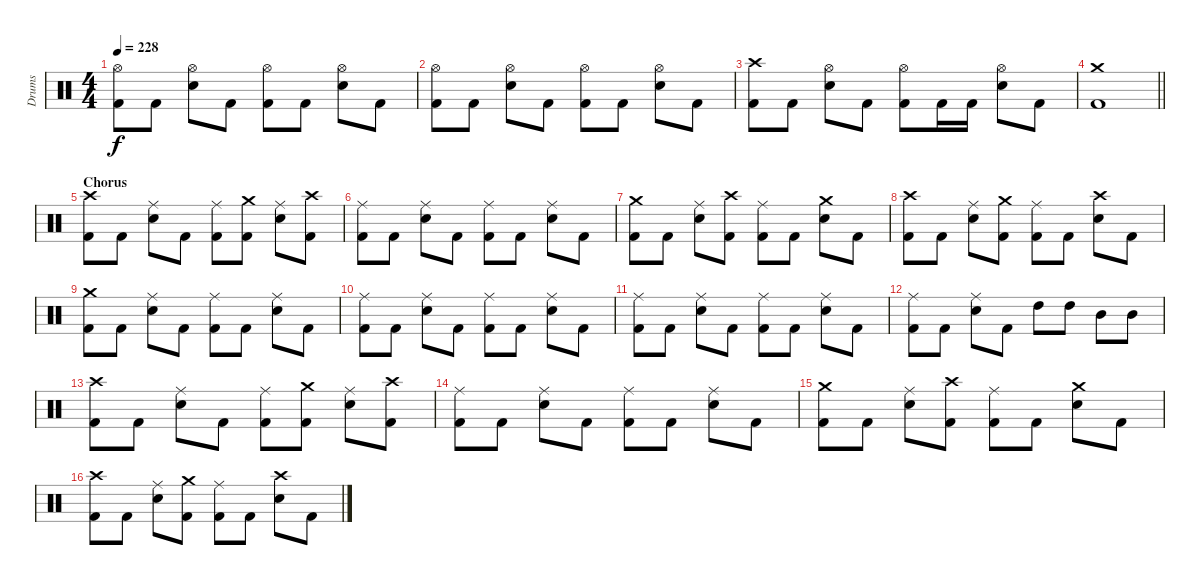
\track ("Drums" "Drums") {instrument percussion}
\staff {score}
\articulation defaults
\ts (4 4)
\tempo 228
\clef neutral
\ks c
("Hi-Hat (open)" "Kick (hit) 2").8{dy f} "Kick (hit) 2".8 ("Hi-Hat (open)" "Snare (hit) 2").8 "Kick (hit) 2".8 ("Hi-Hat (open)" "Kick (hit) 2").8 "Kick (hit) 2".8 ("Hi-Hat (open)" "Snare (hit) 2").8 "Kick (hit) 2".8 |
("Hi-Hat (open)" "Kick (hit) 2").8 "Kick (hit) 2".8 ("Hi-Hat (open)" "Snare (hit) 2").8 "Kick (hit) 2".8 ("Hi-Hat (open)" "Kick (hit) 2").8 "Kick (hit) 2".8 ("Hi-Hat (open)" "Snare (hit) 2").8 "Kick (hit) 2".8 |
("Crash high (hit)" "Kick (hit) 2").8 "Kick (hit) 2".8 ("Hi-Hat (open)" "Snare (hit) 2").8 "Kick (hit) 2".8 ("Hi-Hat (open)" "Kick (hit) 2").8 "Kick (hit) 2".16 "Kick (hit) 2".16 ("Hi-Hat (open)" "Snare (hit) 2").8 "Kick (hit) 2".8 |
\barLineRight lightlight
("Crash medium (hit)" "Kick (hit) 2").1 |
\section ("" "Chorus")
("Crash high (hit)" "Kick (hit) 2").8 "Kick (hit) 2".8 ("Ride (middle)" "Snare (hit) 2").8 "Kick (hit) 2".8 ("Ride (middle)" "Kick (hit) 2").8 ("Crash medium (hit)" "Kick (hit) 2").8 ("Ride (middle)" "Snare (hit) 2").8 ("Crash high (hit)" "Kick (hit) 2").8 |
("Ride (middle)" "Kick (hit) 2").8 "Kick (hit) 2".8 ("Ride (middle)" "Snare (hit) 2").8 "Kick (hit) 2".8 ("Ride (middle)" "Kick (hit) 2").8 "Kick (hit) 2".8 ("Ride (middle)" "Snare (hit) 2").8 "Kick (hit) 2".8 |
("Crash medium (hit)" "Kick (hit) 2").8 "Kick (hit) 2".8 ("Ride (middle)" "Snare (hit) 2").8 ("Crash high (hit)" "Kick (hit) 2").8 ("Ride (middle)" "Kick (hit) 2").8 "Kick (hit) 2".8 ("Crash medium (hit)" "Snare (hit) 2").8 "Kick (hit) 2".8 |
("Crash high (hit)" "Kick (hit) 2").8 "Kick (hit) 2".8 ("Ride (middle)" "Snare (hit) 2").8 ("Crash medium (hit)" "Kick (hit) 2").8 ("Ride (middle)" "Kick (hit) 2").8 "Kick (hit) 2".8 ("Crash high (hit)" "Snare (hit) 2").8 "Kick (hit) 2".8 |
("Crash medium (hit)" "Kick (hit) 2").8 "Kick (hit) 2".8 ("Ride (middle)" "Snare (hit) 2").8 "Kick (hit) 2".8 ("Ride (middle)" "Kick (hit) 2").8 "Kick (hit) 2".8 ("Ride (middle)" "Snare (hit) 2").8 "Kick (hit) 2".8 |
("Ride (middle)" "Kick (hit) 2").8 "Kick (hit) 2".8 ("Ride (middle)" "Snare (hit) 2").8 "Kick (hit) 2".8 ("Ride (middle)" "Kick (hit) 2").8 "Kick (hit) 2".8 ("Ride (middle)" "Snare (hit) 2").8 "Kick (hit) 2".8 |
("Ride (middle)" "Kick (hit) 2").8 "Kick (hit) 2".8 ("Ride (middle)" "Snare (hit) 2").8 "Kick (hit) 2".8 ("Ride (middle)" "Kick (hit) 2").8 "Kick (hit) 2".8 ("Ride (middle)" "Snare (hit) 2").8 "Kick (hit) 2".8 |
("Ride (middle)" "Kick (hit) 2").8 "Kick (hit) 2".8 ("Ride (middle)" "Snare (hit) 2").8 "Kick (hit) 2".8 "High Tom (hit)".8 "High Tom (hit)".8 "Mid Tom (hit)".8 "Mid Tom (hit)".8 |
("Crash high (hit)" "Kick (hit) 2").8 "Kick (hit) 2".8 ("Ride (middle)" "Snare (hit) 2").8 "Kick (hit) 2".8 ("Ride (middle)" "Kick (hit) 2").8 ("Crash medium (hit)" "Kick (hit) 2").8 ("Ride (middle)" "Snare (hit) 2").8 ("Crash high (hit)" "Kick (hit) 2").8 |
("Ride (middle)" "Kick (hit) 2").8 "Kick (hit) 2".8 ("Ride (middle)" "Snare (hit) 2").8 "Kick (hit) 2".8 ("Ride (middle)" "Kick (hit) 2").8 "Kick (hit) 2".8 ("Ride (middle)" "Snare (hit) 2").8 "Kick (hit) 2".8 |
("Crash medium (hit)" "Kick (hit) 2").8 "Kick (hit) 2".8 ("Ride (middle)" "Snare (hit) 2").8 ("Crash high (hit)" "Kick (hit) 2").8 ("Ride (middle)" "Kick (hit) 2").8 "Kick (hit) 2".8 ("Crash medium (hit)" "Snare (hit) 2").8 "Kick (hit) 2".8 |
("Crash high (hit)" "Kick (hit) 2").8 "Kick (hit) 2".8 ("Ride (middle)" "Snare (hit) 2").8 ("Crash medium (hit)" "Kick (hit) 2").8 ("Ride (middle)" "Kick (hit) 2").8 "Kick (hit) 2".8 ("Crash high (hit)" "Snare (hit) 2").8 "Kick (hit) 2".8
